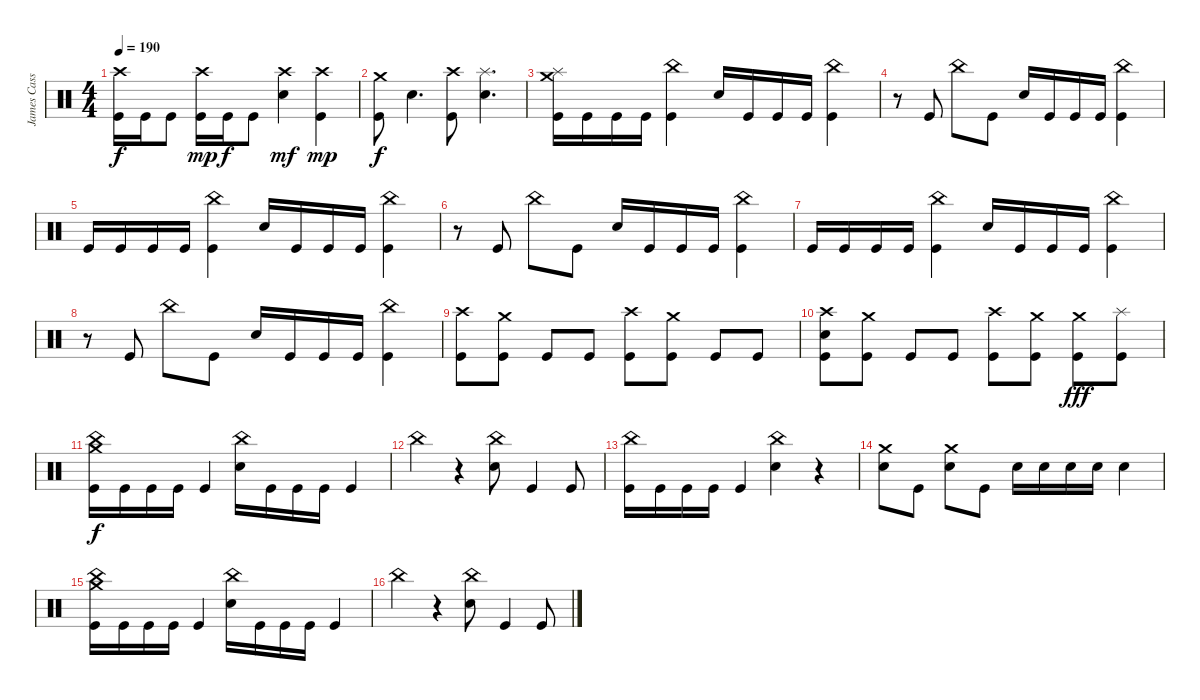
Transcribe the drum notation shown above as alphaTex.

\track ("James Cassells" "James Cass") {instrument percussion}
\staff {score}
\articulation defaults
\ts (4 4)
\tempo 190
\clef neutral
\ks c
("Crash high (hit)" "Kick (hit)").16{dy f} "Kick (hit)".16 "Kick (hit)".8 ("Crash high (hit)" "Kick (hit)").16{dy mp} "Kick (hit)".16{dy f} "Kick (hit)".8 ("Crash high (hit)" "Snare (hit) 2").4{dy mf} ("Crash high (hit)" "Kick (hit)").4{dy mp} |
("Crash medium (hit)" "Kick (hit)").8{dy f} "Snare (hit) 2".4{d} ("Crash high (hit)" "Kick (hit)").8 ("Splash (hit)" "Snare (hit) 2").4{d} |
("Crash medium (hit)" "Splash (hit)" "Kick (hit)").16 "Kick (hit)".16 "Kick (hit)".16 "Kick (hit)".16 ("China (hit)" "Kick (hit)").4 "Snare (hit) 2".16 "Kick (hit)".16 "Kick (hit)".16 "Kick (hit)".16 ("China (hit)" "Kick (hit)").4 |
r.8 "Kick (hit)".8 "China (hit)".8 "Kick (hit)".8 "Snare (hit) 2".16 "Kick (hit)".16 "Kick (hit)".16 "Kick (hit)".16 ("China (hit)" "Kick (hit)").4 |
"Kick (hit)".16 "Kick (hit)".16 "Kick (hit)".16 "Kick (hit)".16 ("China (hit)" "Kick (hit)").4 "Snare (hit) 2".16 "Kick (hit)".16 "Kick (hit)".16 "Kick (hit)".16 ("China (hit)" "Kick (hit)").4 |
r.8 "Kick (hit)".8 "China (hit)".8 "Kick (hit)".8 "Snare (hit) 2".16 "Kick (hit)".16 "Kick (hit)".16 "Kick (hit)".16 ("China (hit)" "Kick (hit)").4 |
"Kick (hit)".16 "Kick (hit)".16 "Kick (hit)".16 "Kick (hit)".16 ("China (hit)" "Kick (hit)").4 "Snare (hit) 2".16 "Kick (hit)".16 "Kick (hit)".16 "Kick (hit)".16 ("China (hit)" "Kick (hit)").4 |
r.8 "Kick (hit)".8 "China (hit)".8 "Kick (hit)".8 "Snare (hit) 2".16 "Kick (hit)".16 "Kick (hit)".16 "Kick (hit)".16 ("China (hit)" "Kick (hit)").4 |
("Crash high (hit)" "Kick (hit)").8 ("Crash medium (hit)" "Kick (hit)").8 "Kick (hit)".8 "Kick (hit)".8 ("Crash high (hit)" "Kick (hit)").8 ("Crash medium (hit)" "Kick (hit)").8 "Kick (hit)".8 "Kick (hit)".8 |
("Crash high (hit)" "Snare (hit) 2" "Kick (hit)").8 ("Crash medium (hit)" "Kick (hit)").8 "Kick (hit)".8 "Kick (hit)".8 ("Crash high (hit)" "Kick (hit)").8 ("Crash medium (hit)" "Kick (hit)").8 ("Crash medium (hit)" "Kick (hit)").8{dy fff} ("Splash (hit)" "Kick (hit)").8 |
("China (hit)" "Crash medium (hit)" "Kick (hit)").16{dy f} "Kick (hit)".16 "Kick (hit)".16 "Kick (hit)".16 "Kick (hit)".4 ("China (hit)" "Snare (hit) 2").16 "Kick (hit)".16 "Kick (hit)".16 "Kick (hit)".16 "Kick (hit)".4 |
"China (hit)".4 r.4 ("China (hit)" "Snare (hit) 2").8 "Kick (hit)".4 "Kick (hit)".8 |
("China (hit)" "Kick (hit)").16 "Kick (hit)".16 "Kick (hit)".16 "Kick (hit)".16 "Kick (hit)".4 ("China (hit)" "Snare (hit) 2").4 r.4 |
("Crash medium (hit)" "Snare (hit) 2").8 "Kick (hit)".8 ("Crash medium (hit)" "Snare (hit) 2").8 "Kick (hit)".8 "Snare (hit) 2".16 "Snare (hit) 2".16 "Snare (hit) 2".16 "Snare (hit) 2".16 "Snare (hit) 2".4 |
("China (hit)" "Crash medium (hit)" "Kick (hit)").16 "Kick (hit)".16 "Kick (hit)".16 "Kick (hit)".16 "Kick (hit)".4 ("China (hit)" "Snare (hit) 2").16 "Kick (hit)".16 "Kick (hit)".16 "Kick (hit)".16 "Kick (hit)".4 |
"China (hit)".4 r.4 ("China (hit)" "Snare (hit) 2").8 "Kick (hit)".4 "Kick (hit)".8
